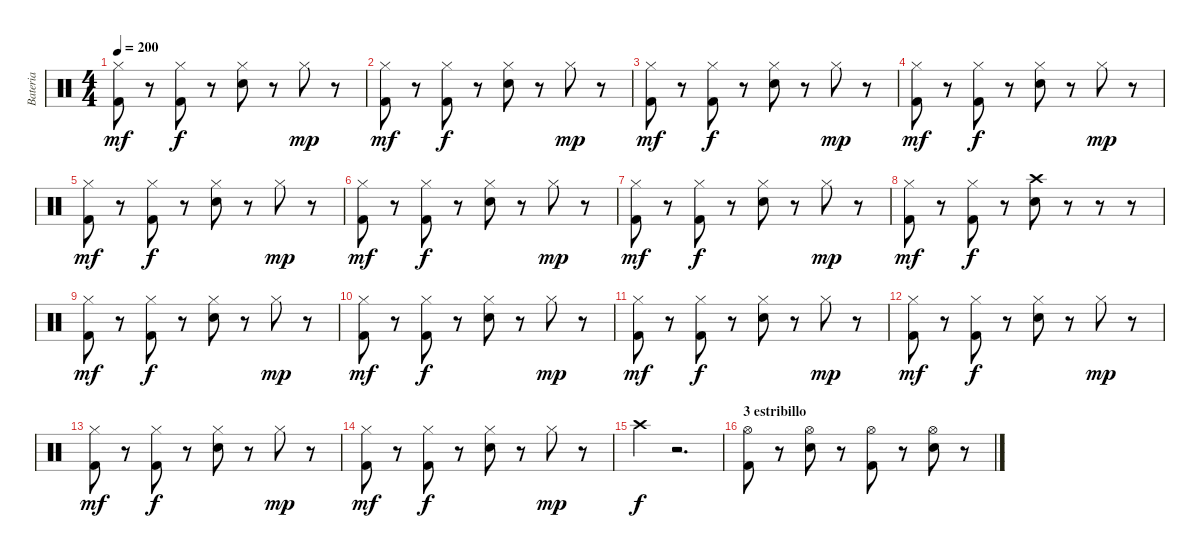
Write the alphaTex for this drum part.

\track ("Bateria" "Bateria") {instrument percussion}
\staff {score}
\articulation defaults
\ts (4 4)
\tempo 200
\clef neutral
\ks c
("Hi-Hat (closed)" "Kick (hit) 2").8{dy mf} r.8 ("Hi-Hat (closed)" "Kick (hit) 2").8{dy f} r.8 ("Hi-Hat (closed)" "Snare (hit) 2").8 r.8 "Hi-Hat (closed)".8{dy mp} r.8 |
("Hi-Hat (closed)" "Kick (hit) 2").8{dy mf} r.8 ("Hi-Hat (closed)" "Kick (hit) 2").8{dy f} r.8 ("Hi-Hat (closed)" "Snare (hit) 2").8 r.8 "Hi-Hat (closed)".8{dy mp} r.8 |
("Hi-Hat (closed)" "Kick (hit) 2").8{dy mf} r.8 ("Hi-Hat (closed)" "Kick (hit) 2").8{dy f} r.8 ("Hi-Hat (closed)" "Snare (hit) 2").8 r.8 "Hi-Hat (closed)".8{dy mp} r.8 |
("Hi-Hat (closed)" "Kick (hit) 2").8{dy mf} r.8 ("Hi-Hat (closed)" "Kick (hit) 2").8{dy f} r.8 ("Hi-Hat (closed)" "Snare (hit) 2").8 r.8 "Hi-Hat (closed)".8{dy mp} r.8 |
("Hi-Hat (closed)" "Kick (hit) 2").8{dy mf} r.8 ("Hi-Hat (closed)" "Kick (hit) 2").8{dy f} r.8 ("Hi-Hat (closed)" "Snare (hit) 2").8 r.8 "Hi-Hat (closed)".8{dy mp} r.8 |
("Hi-Hat (closed)" "Kick (hit) 2").8{dy mf} r.8 ("Hi-Hat (closed)" "Kick (hit) 2").8{dy f} r.8 ("Hi-Hat (closed)" "Snare (hit) 2").8 r.8 "Hi-Hat (closed)".8{dy mp} r.8 |
("Hi-Hat (closed)" "Kick (hit) 2").8{dy mf} r.8 ("Hi-Hat (closed)" "Kick (hit) 2").8{dy f} r.8 ("Hi-Hat (closed)" "Snare (hit) 2").8 r.8 "Hi-Hat (closed)".8{dy mp} r.8 |
("Hi-Hat (closed)" "Kick (hit) 2").8{dy mf} r.8 ("Hi-Hat (closed)" "Kick (hit) 2").8{dy f} r.8 ("Crash high (hit)" "Snare (hit) 2").8 r.8 r.8 r.8 |
("Hi-Hat (closed)" "Kick (hit) 2").8{dy mf} r.8 ("Hi-Hat (closed)" "Kick (hit) 2").8{dy f} r.8 ("Hi-Hat (closed)" "Snare (hit) 2").8 r.8 "Hi-Hat (closed)".8{dy mp} r.8 |
("Hi-Hat (closed)" "Kick (hit) 2").8{dy mf} r.8 ("Hi-Hat (closed)" "Kick (hit) 2").8{dy f} r.8 ("Hi-Hat (closed)" "Snare (hit) 2").8 r.8 "Hi-Hat (closed)".8{dy mp} r.8 |
("Hi-Hat (closed)" "Kick (hit) 2").8{dy mf} r.8 ("Hi-Hat (closed)" "Kick (hit) 2").8{dy f} r.8 ("Hi-Hat (closed)" "Snare (hit) 2").8 r.8 "Hi-Hat (closed)".8{dy mp} r.8 |
("Hi-Hat (closed)" "Kick (hit) 2").8{dy mf} r.8 ("Hi-Hat (closed)" "Kick (hit) 2").8{dy f} r.8 ("Hi-Hat (closed)" "Snare (hit) 2").8 r.8 "Hi-Hat (closed)".8{dy mp} r.8 |
("Hi-Hat (closed)" "Kick (hit) 2").8{dy mf} r.8 ("Hi-Hat (closed)" "Kick (hit) 2").8{dy f} r.8 ("Hi-Hat (closed)" "Snare (hit) 2").8 r.8 "Hi-Hat (closed)".8{dy mp} r.8 |
("Hi-Hat (closed)" "Kick (hit) 2").8{dy mf} r.8 ("Hi-Hat (closed)" "Kick (hit) 2").8{dy f} r.8 ("Hi-Hat (closed)" "Snare (hit) 2").8 r.8 "Hi-Hat (closed)".8{dy mp} r.8 |
"Crash high (hit)".4{dy f} r.2{d} |
\section ("" "3 estribillo")
("Hi-Hat (open)" "Kick (hit) 2").8 r.8 ("Hi-Hat (open)" "Snare (hit) 2").8 r.8 ("Hi-Hat (open)" "Kick (hit) 2").8 r.8 ("Hi-Hat (open)" "Snare (hit) 2").8 r.8
